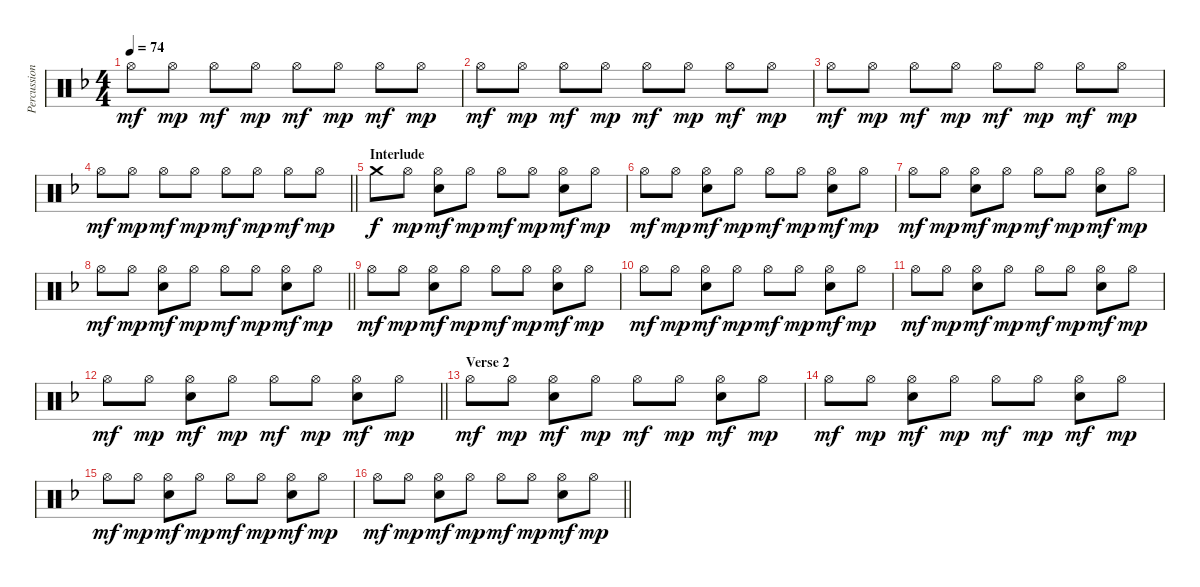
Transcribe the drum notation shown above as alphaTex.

\track ("Percussion" "Percussion") {instrument percussion}
\staff {score}
\articulation defaults
\ts (4 4)
\tempo 74
\clef neutral
\ks f "Hi-Hat (open)".8{dy mf} "Hi-Hat (open)".8{dy mp} "Hi-Hat (open)".8{dy mf} "Hi-Hat (open)".8{dy mp} "Hi-Hat (open)".8{dy mf} "Hi-Hat (open)".8{dy mp} "Hi-Hat (open)".8{dy mf} "Hi-Hat (open)".8{dy mp}
|
"Hi-Hat (open)".8{dy mf} "Hi-Hat (open)".8{dy mp} "Hi-Hat (open)".8{dy mf} "Hi-Hat (open)".8{dy mp} "Hi-Hat (open)".8{dy mf} "Hi-Hat (open)".8{dy mp} "Hi-Hat (open)".8{dy mf} "Hi-Hat (open)".8{dy mp} |
"Hi-Hat (open)".8{dy mf} "Hi-Hat (open)".8{dy mp} "Hi-Hat (open)".8{dy mf} "Hi-Hat (open)".8{dy mp} "Hi-Hat (open)".8{dy mf} "Hi-Hat (open)".8{dy mp} "Hi-Hat (open)".8{dy mf} "Hi-Hat (open)".8{dy mp} |
\barLineRight lightlight "Hi-Hat (open)".8{dy mf} "Hi-Hat (open)".8{dy mp} "Hi-Hat (open)".8{dy mf} "Hi-Hat (open)".8{dy mp} "Hi-Hat (open)".8{dy mf} "Hi-Hat (open)".8{dy mp} "Hi-Hat (open)".8{dy mf} "Hi-Hat (open)".8{dy mp}
|
\section ("" "Interlude")
"Crash medium (hit)".8{dy f} "Hi-Hat (open)".8{dy mp} ("Hi-Hat (open)" "Electric Snare (hit)").8{dy mf} "Hi-Hat (open)".8{dy mp} "Hi-Hat (open)".8{dy mf} "Hi-Hat (open)".8{dy mp} ("Hi-Hat (open)" "Electric Snare (hit)").8{dy mf} "Hi-Hat (open)".8{dy mp} |
"Hi-Hat (open)".8{dy mf} "Hi-Hat (open)".8{dy mp} ("Hi-Hat (open)" "Electric Snare (hit)").8{dy mf} "Hi-Hat (open)".8{dy mp} "Hi-Hat (open)".8{dy mf} "Hi-Hat (open)".8{dy mp} ("Hi-Hat (open)" "Electric Snare (hit)").8{dy mf} "Hi-Hat (open)".8{dy mp} |
"Hi-Hat (open)".8{dy mf} "Hi-Hat (open)".8{dy mp} ("Hi-Hat (open)" "Electric Snare (hit)").8{dy mf} "Hi-Hat (open)".8{dy mp} "Hi-Hat (open)".8{dy mf} "Hi-Hat (open)".8{dy mp} ("Hi-Hat (open)" "Electric Snare (hit)").8{dy mf} "Hi-Hat (open)".8{dy mp} |
\barLineRight lightlight "Hi-Hat (open)".8{dy mf} "Hi-Hat (open)".8{dy mp}
("Hi-Hat (open)" "Electric Snare (hit)").8{dy mf} "Hi-Hat (open)".8{dy mp} "Hi-Hat (open)".8{dy mf} "Hi-Hat (open)".8{dy mp} ("Hi-Hat (open)" "Electric Snare (hit)").8{dy mf} "Hi-Hat (open)".8{dy mp} |
"Hi-Hat (open)".8{dy mf} "Hi-Hat (open)".8{dy mp} ("Hi-Hat (open)" "Electric Snare (hit)").8{dy mf} "Hi-Hat (open)".8{dy mp} "Hi-Hat (open)".8{dy mf} "Hi-Hat (open)".8{dy mp} ("Hi-Hat (open)" "Electric Snare (hit)").8{dy mf} "Hi-Hat (open)".8{dy mp} |
"Hi-Hat (open)".8{dy mf} "Hi-Hat (open)".8{dy mp} ("Hi-Hat (open)" "Electric Snare (hit)").8{dy mf} "Hi-Hat (open)".8{dy mp} "Hi-Hat (open)".8{dy mf} "Hi-Hat (open)".8{dy mp} ("Hi-Hat (open)" "Electric Snare (hit)").8{dy mf} "Hi-Hat (open)".8{dy mp} |
"Hi-Hat (open)".8{dy mf} "Hi-Hat (open)".8{dy mp} ("Hi-Hat (open)" "Electric Snare (hit)").8{dy mf} "Hi-Hat (open)".8{dy mp} "Hi-Hat (open)".8{dy mf} "Hi-Hat (open)".8{dy mp} ("Hi-Hat (open)" "Electric Snare (hit)").8{dy mf} "Hi-Hat (open)".8{dy mp} |
\barLineRight lightlight "Hi-Hat (open)".8{dy mf} "Hi-Hat (open)".8{dy mp}
("Hi-Hat (open)" "Electric Snare (hit)").8{dy mf} "Hi-Hat (open)".8{dy mp} "Hi-Hat (open)".8{dy mf} "Hi-Hat (open)".8{dy mp} ("Hi-Hat (open)" "Electric Snare (hit)").8{dy mf} "Hi-Hat (open)".8{dy mp} |
\section ("" "Verse 2")
"Hi-Hat (open)".8{dy mf} "Hi-Hat (open)".8{dy mp} ("Hi-Hat (open)" "Electric Snare (hit)").8{dy mf} "Hi-Hat (open)".8{dy mp} "Hi-Hat (open)".8{dy mf} "Hi-Hat (open)".8{dy mp} ("Hi-Hat (open)" "Electric Snare (hit)").8{dy mf} "Hi-Hat (open)".8{dy mp} |
"Hi-Hat (open)".8{dy mf} "Hi-Hat (open)".8{dy mp} ("Hi-Hat (open)" "Electric Snare (hit)").8{dy mf} "Hi-Hat (open)".8{dy mp} "Hi-Hat (open)".8{dy mf} "Hi-Hat (open)".8{dy mp} ("Hi-Hat (open)" "Electric Snare (hit)").8{dy mf} "Hi-Hat (open)".8{dy mp} |
"Hi-Hat (open)".8{dy mf} "Hi-Hat (open)".8{dy mp} ("Hi-Hat (open)" "Electric Snare (hit)").8{dy mf} "Hi-Hat (open)".8{dy mp} "Hi-Hat (open)".8{dy mf} "Hi-Hat (open)".8{dy mp} ("Hi-Hat (open)" "Electric Snare (hit)").8{dy mf} "Hi-Hat (open)".8{dy mp} |
\barLineRight lightlight "Hi-Hat (open)".8{dy mf} "Hi-Hat (open)".8{dy mp}
("Hi-Hat (open)" "Electric Snare (hit)").8{dy mf} "Hi-Hat (open)".8{dy mp} "Hi-Hat (open)".8{dy mf} "Hi-Hat (open)".8{dy mp} ("Hi-Hat (open)" "Electric Snare (hit)").8{dy mf} "Hi-Hat (open)".8{dy mp}
